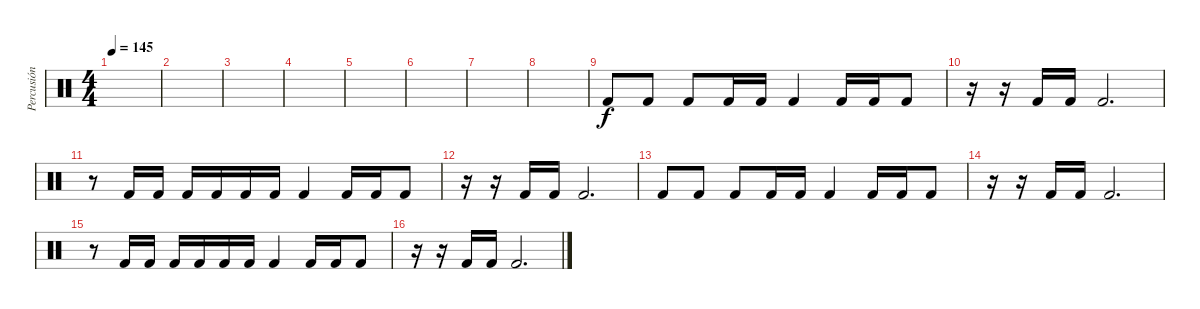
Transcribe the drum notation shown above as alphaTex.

\track ("Percusión" "Percusión") {instrument percussion}
\staff {score}
\articulation defaults
\ts (4 4)
\tempo 145
\clef neutral
\ks c
|
|
|
|
|
|
|
|
"Kick (hit) 2".8 "Kick (hit) 2".8 "Kick (hit) 2".8 "Kick (hit) 2".16 "Kick (hit) 2".16 "Kick (hit) 2".4 "Kick (hit) 2".16 "Kick (hit) 2".16 "Kick (hit) 2".8 |
r.16 r.16 "Kick (hit) 2".16 "Kick (hit) 2".16 "Kick (hit) 2".2{d} |
r.8 "Kick (hit) 2".16 "Kick (hit) 2".16 "Kick (hit) 2".16 "Kick (hit) 2".16 "Kick (hit) 2".16 "Kick (hit) 2".16 "Kick (hit) 2".4 "Kick (hit) 2".16 "Kick (hit) 2".16 "Kick (hit) 2".8 |
r.16 r.16 "Kick (hit) 2".16 "Kick (hit) 2".16 "Kick (hit) 2".2{d} |
"Kick (hit) 2".8 "Kick (hit) 2".8 "Kick (hit) 2".8 "Kick (hit) 2".16 "Kick (hit) 2".16 "Kick (hit) 2".4 "Kick (hit) 2".16 "Kick (hit) 2".16 "Kick (hit) 2".8 |
r.16 r.16 "Kick (hit) 2".16 "Kick (hit) 2".16 "Kick (hit) 2".2{d} |
r.8 "Kick (hit) 2".16 "Kick (hit) 2".16 "Kick (hit) 2".16 "Kick (hit) 2".16 "Kick (hit) 2".16 "Kick (hit) 2".16 "Kick (hit) 2".4 "Kick (hit) 2".16 "Kick (hit) 2".16 "Kick (hit) 2".8 |
r.16 r.16 "Kick (hit) 2".16 "Kick (hit) 2".16 "Kick (hit) 2".2{d}
